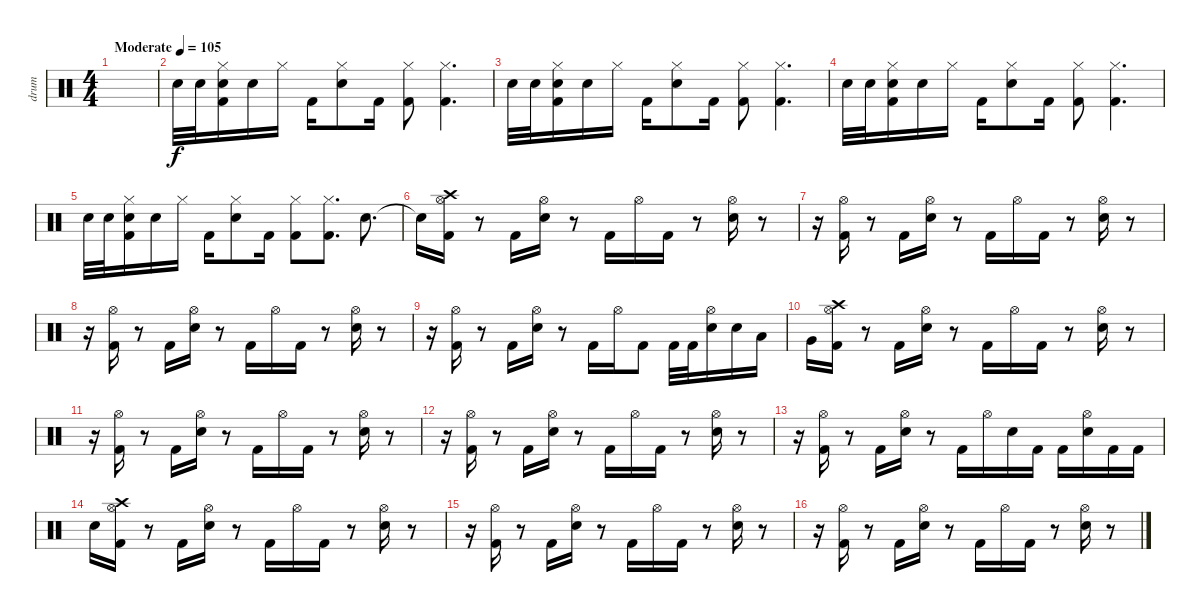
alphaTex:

\track ("drum" "drum") {instrument percussion}
\staff {score}
\articulation defaults
\ts (4 4)
\tempo (105 "Moderate")
\clef neutral
\ks c
|
"Electric Snare (hit)".32 "Electric Snare (hit)".32 ("Hi-Hat (closed)" "Electric Snare (hit)" "Kick (hit) 2").16 "Electric Snare (hit)".16 "Hi-Hat (closed)".16 "Kick (hit) 2".16 ("Hi-Hat (closed)" "Electric Snare (hit)").8 "Kick (hit) 2".16 ("Hi-Hat (closed)" "Kick (hit) 2").8 ("Hi-Hat (closed)" "Kick (hit) 2").4{d} |
"Electric Snare (hit)".32 "Electric Snare (hit)".32 ("Hi-Hat (closed)" "Electric Snare (hit)" "Kick (hit) 2").16 "Electric Snare (hit)".16 "Hi-Hat (closed)".16 "Kick (hit) 2".16 ("Hi-Hat (closed)" "Electric Snare (hit)").8 "Kick (hit) 2".16 ("Hi-Hat (closed)" "Kick (hit) 2").8 ("Hi-Hat (closed)" "Kick (hit) 2").4{d} |
"Electric Snare (hit)".32 "Electric Snare (hit)".32 ("Hi-Hat (closed)" "Electric Snare (hit)" "Kick (hit) 2").16 "Electric Snare (hit)".16 "Hi-Hat (closed)".16 "Kick (hit) 2".16 ("Hi-Hat (closed)" "Electric Snare (hit)").8 "Kick (hit) 2".16 ("Hi-Hat (closed)" "Kick (hit) 2").8 ("Hi-Hat (closed)" "Kick (hit) 2").4{d} |
"Electric Snare (hit)".32 "Electric Snare (hit)".32 ("Hi-Hat (closed)" "Electric Snare (hit)" "Kick (hit) 2").16 "Electric Snare (hit)".16 "Hi-Hat (closed)".16 "Kick (hit) 2".16 ("Hi-Hat (closed)" "Electric Snare (hit)").8 "Kick (hit) 2".16 ("Hi-Hat (closed)" "Kick (hit) 2").8 ("Hi-Hat (closed)" "Kick (hit) 2").8{d} "Electric Snare (hit)".8{d} |
"Snare (hit)"{t}.16 ("Crash high (hit)" "Hi-Hat (open)" "Kick (hit) 2").16 r.8 "Kick (hit) 2".16 ("Hi-Hat (open)" "Electric Snare (hit)").16 r.8 "Kick (hit) 2".16 "Hi-Hat (open)".16 "Kick (hit) 2".16 r.8 ("Hi-Hat (open)" "Electric Snare (hit)").16 r.8 |
r.16 ("Hi-Hat (open)" "Kick (hit) 2").16 r.8 "Kick (hit) 2".16 ("Hi-Hat (open)" "Electric Snare (hit)").16 r.8 "Kick (hit) 2".16 "Hi-Hat (open)".16 "Kick (hit) 2".16 r.8 ("Hi-Hat (open)" "Electric Snare (hit)").16 r.8 |
r.16 ("Hi-Hat (open)" "Kick (hit) 2").16 r.8 "Kick (hit) 2".16 ("Hi-Hat (open)" "Electric Snare (hit)").16 r.8 "Kick (hit) 2".16 "Hi-Hat (open)".16 "Kick (hit) 2".16 r.8 ("Hi-Hat (open)" "Electric Snare (hit)").16 r.8 |
r.16 ("Hi-Hat (open)" "Kick (hit) 2").16 r.8 "Kick (hit) 2".16 ("Hi-Hat (open)" "Electric Snare (hit)").16 r.8 "Kick (hit) 2".16 "Hi-Hat (open)".16 "Kick (hit) 2".8 "Kick (hit) 2".32 "Kick (hit) 2".32 ("Hi-Hat (open)" "Electric Snare (hit)").16 "Electric Snare (hit)".16 "Low Tom (hit)".16 |
"Very Low Tom (hit)".16 ("Crash high (hit)" "Hi-Hat (open)" "Kick (hit) 2").16 r.8 "Kick (hit) 2".16 ("Hi-Hat (open)" "Electric Snare (hit)").16 r.8 "Kick (hit) 2".16 "Hi-Hat (open)".16 "Kick (hit) 2".16 r.8 ("Hi-Hat (open)" "Electric Snare (hit)").16 r.8 |
r.16 ("Hi-Hat (open)" "Kick (hit) 2").16 r.8 "Kick (hit) 2".16 ("Hi-Hat (open)" "Electric Snare (hit)").16 r.8 "Kick (hit) 2".16 "Hi-Hat (open)".16 "Kick (hit) 2".16 r.8 ("Hi-Hat (open)" "Electric Snare (hit)").16 r.8 |
r.16 ("Hi-Hat (open)" "Kick (hit) 2").16 r.8 "Kick (hit) 2".16 ("Hi-Hat (open)" "Electric Snare (hit)").16 r.8 "Kick (hit) 2".16 "Hi-Hat (open)".16 "Kick (hit) 2".16 r.8 ("Hi-Hat (open)" "Electric Snare (hit)").16 r.8 |
r.16 ("Hi-Hat (open)" "Kick (hit) 2").16 r.8 "Kick (hit) 2".16 ("Hi-Hat (open)" "Electric Snare (hit)").16 r.8 "Kick (hit) 2".16 "Hi-Hat (open)".16 "Electric Snare (hit)".16 "Kick (hit) 2".16 "Kick (hit) 2".16 ("Hi-Hat (open)" "Electric Snare (hit)").16 "Kick (hit) 2".16 "Kick (hit) 2".16 |
"Electric Snare (hit)".16 ("Crash high (hit)" "Hi-Hat (open)" "Kick (hit) 2").16 r.8 "Kick (hit) 2".16 ("Hi-Hat (open)" "Electric Snare (hit)").16 r.8 "Kick (hit) 2".16 "Hi-Hat (open)".16 "Kick (hit) 2".16 r.8 ("Hi-Hat (open)" "Electric Snare (hit)").16 r.8 |
r.16 ("Hi-Hat (open)" "Kick (hit) 2").16 r.8 "Kick (hit) 2".16 ("Hi-Hat (open)" "Electric Snare (hit)").16 r.8 "Kick (hit) 2".16 "Hi-Hat (open)".16 "Kick (hit) 2".16 r.8 ("Hi-Hat (open)" "Electric Snare (hit)").16 r.8 |
r.16 ("Hi-Hat (open)" "Kick (hit) 2").16 r.8 "Kick (hit) 2".16 ("Hi-Hat (open)" "Electric Snare (hit)").16 r.8 "Kick (hit) 2".16 "Hi-Hat (open)".16 "Kick (hit) 2".16 r.8 ("Hi-Hat (open)" "Electric Snare (hit)").16 r.8
